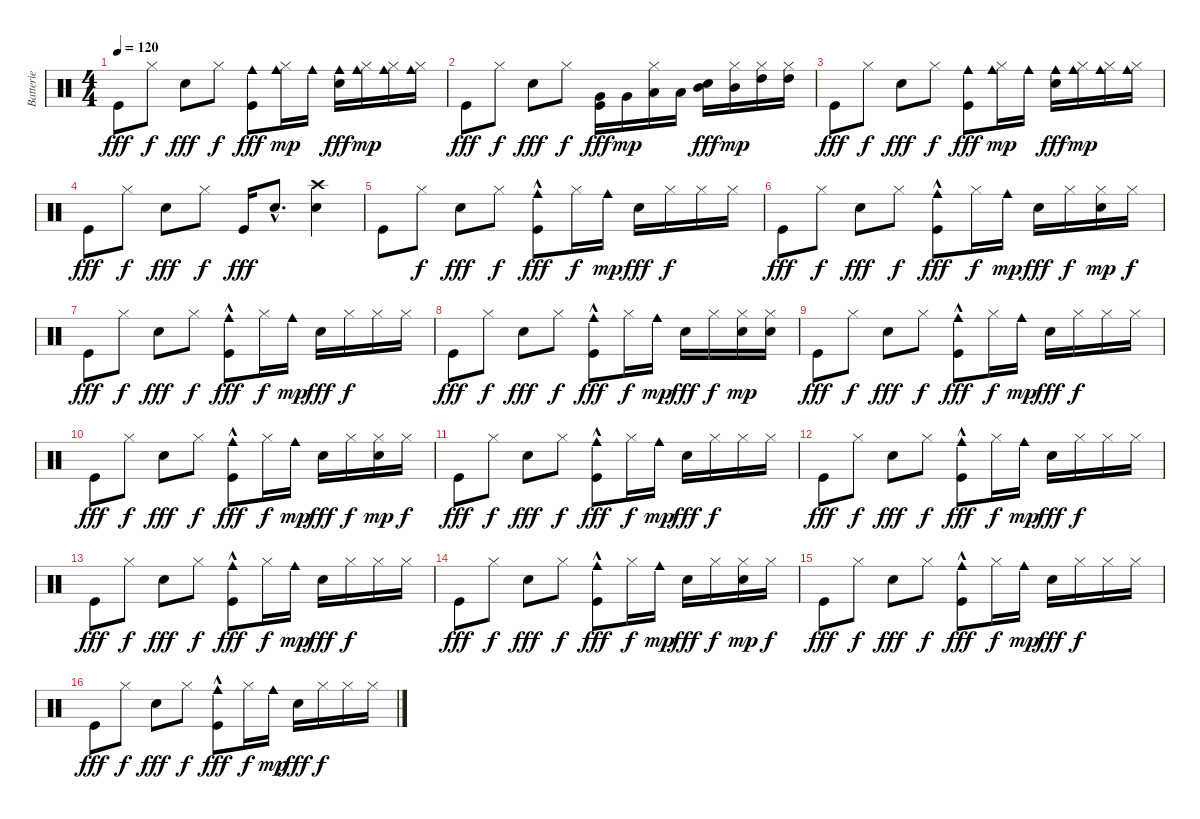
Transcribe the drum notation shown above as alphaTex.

\track ("Batterie" "Batterie") {instrument percussion}
\staff {score}
\articulation defaults
\ts (4 4)
\tempo 120
\clef neutral
\ks c "Kick (hit)".8{dy fff} "Hi-Hat (closed)".8{dy f} "Snare (hit) 2".8{dy fff} "Hi-Hat (closed)".8{dy f}
("Cowbell medium (hit)" "Kick (hit)").8{dy fff} ("Cowbell medium (hit)" "Hi-Hat (closed)").16{dy mp} "Cowbell medium (hit)".16 ("Cowbell medium (hit)" "Snare (hit) 2").16{dy fff} ("Cowbell medium (hit)" "Hi-Hat (closed)").16{dy mp} ("Cowbell medium (hit)" "Hi-Hat (closed)").16 ("Cowbell medium (hit)" "Hi-Hat (closed)").16 |
"Kick (hit)".8{dy fff} "Hi-Hat (closed)".8{dy f} "Snare (hit) 2".8{dy fff} "Hi-Hat (closed)".8{dy f} ("Very Low Tom (hit)" "Kick (hit)").16{dy fff} "Very Low Tom (hit)".16{dy mp} ("Low Tom (hit)" "Hi-Hat (closed)").16 "Low Tom (hit)".16 ("Mid Tom (hit)" "Snare (hit) 2").16{dy fff} ("Mid Tom (hit)" "Hi-Hat (closed)").16{dy mp} ("High Tom (hit)" "Hi-Hat (closed)").16 ("High Tom (hit)" "Hi-Hat (closed)").16 |
"Kick (hit)".8{dy fff} "Hi-Hat (closed)".8{dy f} "Snare (hit) 2".8{dy fff} "Hi-Hat (closed)".8{dy f} ("Cowbell medium (hit)" "Kick (hit)").8{dy fff} ("Cowbell medium (hit)" "Hi-Hat (closed)").16{dy mp} "Cowbell medium (hit)".16 ("Cowbell medium (hit)" "Snare (hit) 2").16{dy fff} ("Cowbell medium (hit)" "Hi-Hat (closed)").16{dy mp} ("Cowbell medium (hit)" "Hi-Hat (closed)").16 ("Cowbell medium (hit)" "Hi-Hat (closed)").16 |
"Kick (hit)".8{dy fff} "Hi-Hat (closed)".8{dy f} "Snare (hit) 2".8{dy fff} "Hi-Hat (closed)".8{dy f} "Kick (hit)".16{dy fff} "Snare (hit) 2"{hac}.8{d} ("Crash high (hit)" "Snare (hit) 2").4 |
"Kick (hit)".8 "Hi-Hat (closed)".8{dy f} "Snare (hit) 2".8{dy fff} "Hi-Hat (closed)".8{dy f} ("Cowbell medium (hit)"{hac} "Kick (hit)").8{dy fff} "Hi-Hat (closed)".16{dy f} "Cowbell medium (hit)".16{dy mp} "Snare (hit) 2".16{dy fff} "Hi-Hat (closed)".16{dy f} "Hi-Hat (closed)".16 "Hi-Hat (closed)".16 |
"Kick (hit)".8{dy fff} "Hi-Hat (closed)".8{dy f} "Snare (hit) 2".8{dy fff} "Hi-Hat (closed)".8{dy f} ("Cowbell medium (hit)"{hac} "Kick (hit)").8{dy fff} "Hi-Hat (closed)".16{dy f} "Cowbell medium (hit)".16{dy mp} "Snare (hit) 2".16{dy fff} "Hi-Hat (closed)".16{dy f} ("Hand Clap (hit)" "Hi-Hat (closed)").16{dy mp} "Hi-Hat (closed)".16{dy f} |
"Kick (hit)".8{dy fff} "Hi-Hat (closed)".8{dy f} "Snare (hit) 2".8{dy fff} "Hi-Hat (closed)".8{dy f} ("Cowbell medium (hit)"{hac} "Kick (hit)").8{dy fff} "Hi-Hat (closed)".16{dy f} "Cowbell medium (hit)".16{dy mp} "Snare (hit) 2".16{dy fff} "Hi-Hat (closed)".16{dy f} "Hi-Hat (closed)".16 "Hi-Hat (closed)".16 |
"Kick (hit)".8{dy fff} "Hi-Hat (closed)".8{dy f} "Snare (hit) 2".8{dy fff} "Hi-Hat (closed)".8{dy f} ("Cowbell medium (hit)"{hac} "Kick (hit)").8{dy fff} "Hi-Hat (closed)".16{dy f} "Cowbell medium (hit)".16{dy mp} "Snare (hit) 2".16{dy fff} "Hi-Hat (closed)".16{dy f} ("Hand Clap (hit)" "Hi-Hat (closed)").16{dy mp} ("Hand Clap (hit)" "Hi-Hat (closed)").16 |
"Kick (hit)".8{dy fff} "Hi-Hat (closed)".8{dy f} "Snare (hit) 2".8{dy fff} "Hi-Hat (closed)".8{dy f} ("Cowbell medium (hit)"{hac} "Kick (hit)").8{dy fff} "Hi-Hat (closed)".16{dy f} "Cowbell medium (hit)".16{dy mp} "Snare (hit) 2".16{dy fff} "Hi-Hat (closed)".16{dy f} "Hi-Hat (closed)".16 "Hi-Hat (closed)".16 |
"Kick (hit)".8{dy fff} "Hi-Hat (closed)".8{dy f} "Snare (hit) 2".8{dy fff} "Hi-Hat (closed)".8{dy f} ("Cowbell medium (hit)"{hac} "Kick (hit)").8{dy fff} "Hi-Hat (closed)".16{dy f} "Cowbell medium (hit)".16{dy mp} "Snare (hit) 2".16{dy fff} "Hi-Hat (closed)".16{dy f} ("Hand Clap (hit)" "Hi-Hat (closed)").16{dy mp} "Hi-Hat (closed)".16{dy f} |
"Kick (hit)".8{dy fff} "Hi-Hat (closed)".8{dy f} "Snare (hit) 2".8{dy fff} "Hi-Hat (closed)".8{dy f} ("Cowbell medium (hit)"{hac} "Kick (hit)").8{dy fff} "Hi-Hat (closed)".16{dy f} "Cowbell medium (hit)".16{dy mp} "Snare (hit) 2".16{dy fff} "Hi-Hat (closed)".16{dy f} "Hi-Hat (closed)".16 "Hi-Hat (closed)".16 |
"Kick (hit)".8{dy fff} "Hi-Hat (closed)".8{dy f} "Snare (hit) 2".8{dy fff} "Hi-Hat (closed)".8{dy f} ("Cowbell medium (hit)"{hac} "Kick (hit)").8{dy fff} "Hi-Hat (closed)".16{dy f} "Cowbell medium (hit)".16{dy mp} "Snare (hit) 2".16{dy fff} "Hi-Hat (closed)".16{dy f} "Hi-Hat (closed)".16 "Hi-Hat (closed)".16 |
"Kick (hit)".8{dy fff} "Hi-Hat (closed)".8{dy f} "Snare (hit) 2".8{dy fff} "Hi-Hat (closed)".8{dy f} ("Cowbell medium (hit)"{hac} "Kick (hit)").8{dy fff} "Hi-Hat (closed)".16{dy f} "Cowbell medium (hit)".16{dy mp} "Snare (hit) 2".16{dy fff} "Hi-Hat (closed)".16{dy f} "Hi-Hat (closed)".16 "Hi-Hat (closed)".16 |
"Kick (hit)".8{dy fff} "Hi-Hat (closed)".8{dy f} "Snare (hit) 2".8{dy fff} "Hi-Hat (closed)".8{dy f} ("Cowbell medium (hit)"{hac} "Kick (hit)").8{dy fff} "Hi-Hat (closed)".16{dy f} "Cowbell medium (hit)".16{dy mp} "Snare (hit) 2".16{dy fff} "Hi-Hat (closed)".16{dy f} ("Hand Clap (hit)" "Hi-Hat (closed)").16{dy mp} "Hi-Hat (closed)".16{dy f} |
"Kick (hit)".8{dy fff} "Hi-Hat (closed)".8{dy f} "Snare (hit) 2".8{dy fff} "Hi-Hat (closed)".8{dy f} ("Cowbell medium (hit)"{hac} "Kick (hit)").8{dy fff} "Hi-Hat (closed)".16{dy f} "Cowbell medium (hit)".16{dy mp} "Snare (hit) 2".16{dy fff} "Hi-Hat (closed)".16{dy f} "Hi-Hat (closed)".16 "Hi-Hat (closed)".16 |
"Kick (hit)".8{dy fff} "Hi-Hat (closed)".8{dy f} "Snare (hit) 2".8{dy fff} "Hi-Hat (closed)".8{dy f} ("Cowbell medium (hit)"{hac} "Kick (hit)").8{dy fff} "Hi-Hat (closed)".16{dy f} "Cowbell medium (hit)".16{dy mp} "Snare (hit) 2".16{dy fff} "Hi-Hat (closed)".16{dy f} "Hi-Hat (closed)".16 "Hi-Hat (closed)".16
